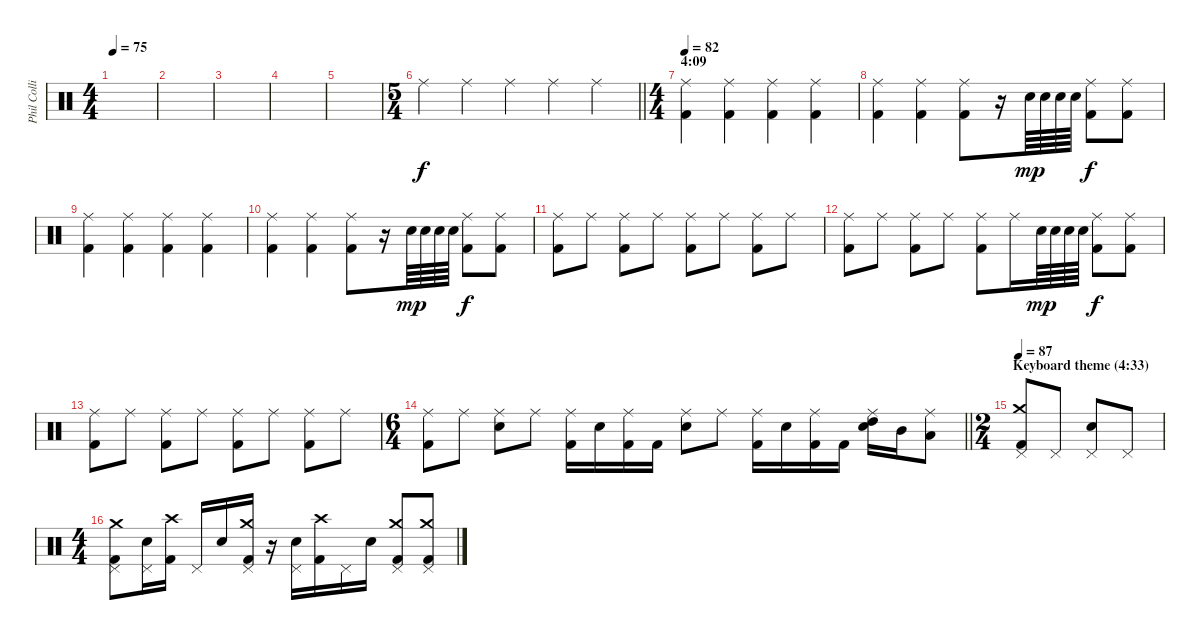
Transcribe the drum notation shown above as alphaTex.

\track ("Phil Collins (drums)" "Phil Colli") {instrument percussion}
\staff {score}
\articulation defaults
\ts (4 4)
\tempo 75
\clef neutral
\ks c
|
|
|
|
|
\ts (5 4)
\barLineRight lightlight "Ride (middle)".4 "Ride (middle)".4 "Ride (middle)".4 "Ride (middle)".4 "Ride (middle)".4
|
\ts (4 4)
\section ("" "4:09")
\tempo 82
("Ride (middle)" "Kick (hit) 2").4 ("Ride (middle)" "Kick (hit) 2").4 ("Ride (middle)" "Kick (hit) 2").4 ("Ride (middle)" "Kick (hit) 2").4 |
("Ride (middle)" "Kick (hit) 2").4 ("Ride (middle)" "Kick (hit) 2").4 ("Ride (middle)" "Kick (hit) 2").8 r.16 "Electric Snare (hit)".64{dy mp} "Electric Snare (hit)".64 "Electric Snare (hit)".64 "Electric Snare (hit)".64 ("Ride (middle)" "Kick (hit) 2").8{dy f} ("Ride (middle)" "Kick (hit) 2").8 |
("Ride (middle)" "Kick (hit) 2").4 ("Ride (middle)" "Kick (hit) 2").4 ("Ride (middle)" "Kick (hit) 2").4 ("Ride (middle)" "Kick (hit) 2").4 |
("Ride (middle)" "Kick (hit) 2").4 ("Ride (middle)" "Kick (hit) 2").4 ("Ride (middle)" "Kick (hit) 2").8 r.16 "Electric Snare (hit)".64{dy mp} "Electric Snare (hit)".64 "Electric Snare (hit)".64 "Electric Snare (hit)".64 ("Ride (middle)" "Kick (hit) 2").8{dy f} ("Ride (middle)" "Kick (hit) 2").8 |
("Ride (middle)" "Kick (hit) 2").8 "Ride (middle)".8 ("Ride (middle)" "Kick (hit) 2").8 "Ride (middle)".8 ("Ride (middle)" "Kick (hit) 2").8 "Ride (middle)".8 ("Ride (middle)" "Kick (hit) 2").8 "Ride (middle)".8 |
("Ride (middle)" "Kick (hit) 2").8 "Ride (middle)".8 ("Ride (middle)" "Kick (hit) 2").8 "Ride (middle)".8 ("Ride (middle)" "Kick (hit) 2").8 "Ride (middle)".16 "Electric Snare (hit)".64{dy mp} "Electric Snare (hit)".64 "Electric Snare (hit)".64 "Electric Snare (hit)".64 ("Ride (middle)" "Kick (hit) 2").8{dy f} ("Ride (middle)" "Kick (hit) 2").8 |
("Ride (middle)" "Kick (hit) 2").8 "Ride (middle)".8 ("Ride (middle)" "Kick (hit) 2").8 "Ride (middle)".8 ("Ride (middle)" "Kick (hit) 2").8 "Ride (middle)".8 ("Ride (middle)" "Kick (hit) 2").8 "Ride (middle)".8 |
\ts (6 4)
\barLineRight lightlight
("Ride (middle)" "Kick (hit) 2").8 "Ride (middle)".8 ("Ride (middle)" "Electric Snare (hit)").8 "Ride (middle)".8 ("Ride (middle)" "Kick (hit) 2").16 "Electric Snare (hit)".16 ("Ride (middle)" "Kick (hit) 2").16 "Kick (hit) 2".16 ("Ride (middle)" "Electric Snare (hit)").8 "Ride (middle)".8 ("Ride (middle)" "Kick (hit) 2").16 "Electric Snare (hit)".16 ("Ride (middle)" "Kick (hit) 2").16 "Kick (hit) 2".16 ("High Tom (hit)" "Ride (middle)" "Electric Snare (hit)").16 "Mid Tom (hit)".16 ("Low Tom (hit)" "Ride (middle)").8 |
\ts (2 4)
\section ("" "Keyboard theme (4:33)")
\tempo 87
("Crash medium (hit)" "Pedal Hi-Hat (hit)" "Kick (hit) 2").8 "Pedal Hi-Hat (hit)".8 ("Pedal Hi-Hat (hit)" "Electric Snare (hit)").8 "Pedal Hi-Hat (hit)".8 |
\ts (4 4)
("Crash medium (hit)" "Pedal Hi-Hat (hit)" "Kick (hit) 2").8 ("Pedal Hi-Hat (hit)" "Electric Snare (hit)").16 ("Crash high (hit)" "Kick (hit) 2").16 "Pedal Hi-Hat (hit)".16 "Electric Snare (hit)".16 ("Crash medium (hit)" "Pedal Hi-Hat (hit)" "Kick (hit) 2").16 r.16 ("Pedal Hi-Hat (hit)" "Electric Snare (hit)").16 ("Crash high (hit)" "Kick (hit) 2").16 "Pedal Hi-Hat (hit)".16 "Electric Snare (hit)".16 ("Crash medium (hit)" "Pedal Hi-Hat (hit)" "Kick (hit) 2").8 ("Crash medium (hit)" "Pedal Hi-Hat (hit)" "Kick (hit) 2").8
